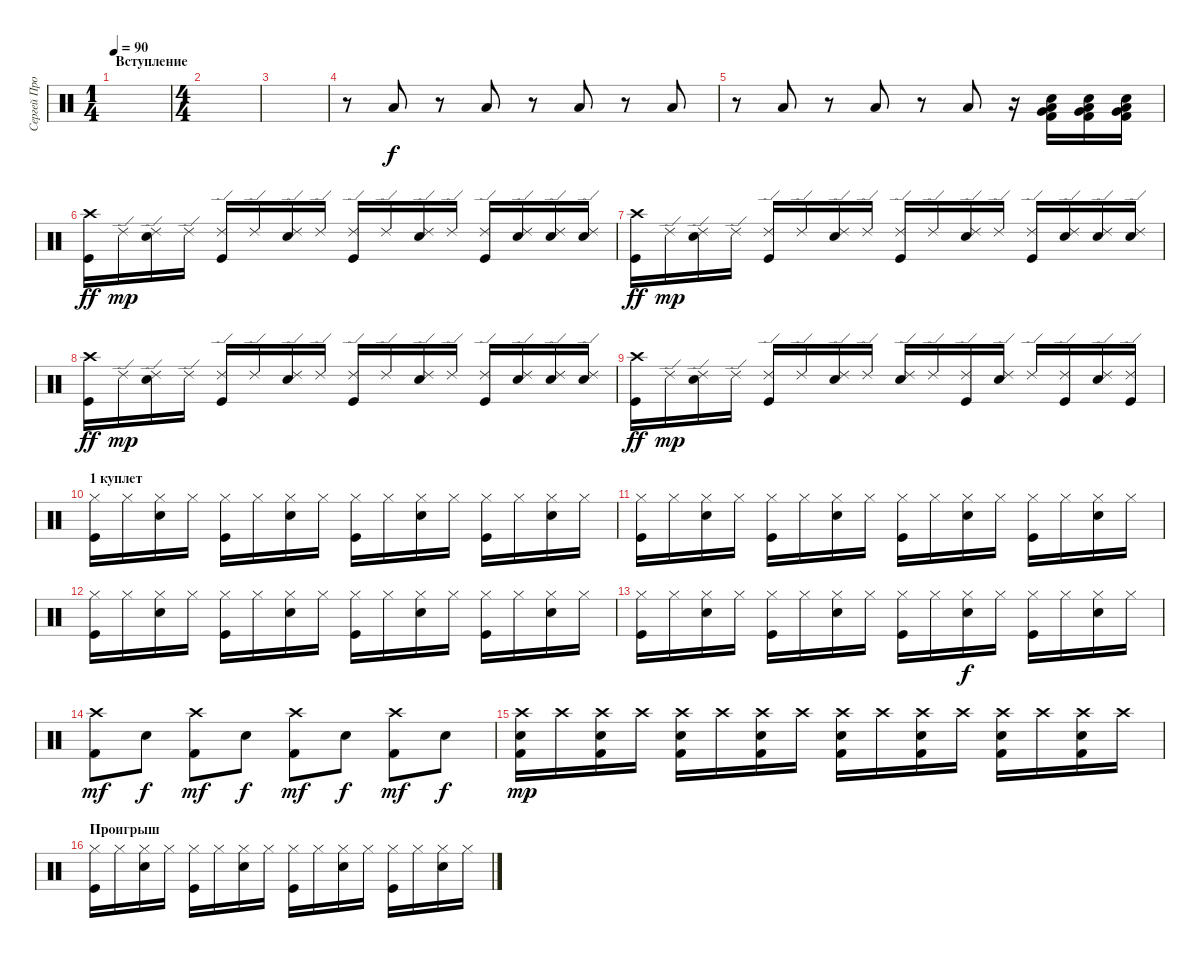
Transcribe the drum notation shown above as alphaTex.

\track ("Сергей Прокофьев" "Сергей Про") {instrument percussion}
\staff {score}
\articulation defaults
\ts (1 4)
\section ("" "Вступление")
\tempo 90
\clef neutral
\ks c
|
\ts (4 4)
|
|
r.8 "Low Tom (hit)".8 r.8 "Low Tom (hit)".8 r.8 "Low Tom (hit)".8 r.8 "Low Tom (hit)".8 |
r.8 "Low Tom (hit)".8 r.8 "Low Tom (hit)".8 r.8 "Low Tom (hit)".8 r.16 ("Kick (hit) 2" "Low Tom (hit)" "Very Low Tom (hit)" "Electric Snare (hit)").16 ("Kick (hit) 2" "Low Tom (hit)" "Very Low Tom (hit)" "Electric Snare (hit)").16 ("Kick (hit) 2" "Low Tom (hit)" "Very Low Tom (hit)" "Electric Snare (hit)").16 |
("Crash high (hit)" "Kick (hit)").16{dy ff} "Ride (edge) 2".16{dy mp} ("Ride (edge) 2" "Electric Snare (hit)").16 "Ride (edge) 2".16 ("Ride (edge) 2" "Kick (hit)").16 "Ride (edge) 2".16 ("Ride (edge) 2" "Electric Snare (hit)").16 "Ride (edge) 2".16 ("Ride (edge) 2" "Kick (hit)").16 "Ride (edge) 2".16 ("Ride (edge) 2" "Electric Snare (hit)").16 "Ride (edge) 2".16 ("Ride (edge) 2" "Kick (hit)").16 ("Ride (edge) 2" "Electric Snare (hit)").16 ("Ride (edge) 2" "Electric Snare (hit)").16 ("Ride (edge) 2" "Electric Snare (hit)").16 |
("Crash high (hit)" "Kick (hit)").16{dy ff} "Ride (edge) 2".16{dy mp} ("Ride (edge) 2" "Electric Snare (hit)").16 "Ride (edge) 2".16 ("Ride (edge) 2" "Kick (hit)").16 "Ride (edge) 2".16 ("Ride (edge) 2" "Electric Snare (hit)").16 "Ride (edge) 2".16 ("Ride (edge) 2" "Kick (hit)").16 "Ride (edge) 2".16 ("Ride (edge) 2" "Electric Snare (hit)").16 "Ride (edge) 2".16 ("Ride (edge) 2" "Kick (hit)").16 ("Ride (edge) 2" "Electric Snare (hit)").16 ("Ride (edge) 2" "Electric Snare (hit)").16 ("Ride (edge) 2" "Electric Snare (hit)").16 |
("Crash high (hit)" "Kick (hit)").16{dy ff} "Ride (edge) 2".16{dy mp} ("Ride (edge) 2" "Electric Snare (hit)").16 "Ride (edge) 2".16 ("Ride (edge) 2" "Kick (hit)").16 "Ride (edge) 2".16 ("Ride (edge) 2" "Electric Snare (hit)").16 "Ride (edge) 2".16 ("Ride (edge) 2" "Kick (hit)").16 "Ride (edge) 2".16 ("Ride (edge) 2" "Electric Snare (hit)").16 "Ride (edge) 2".16 ("Ride (edge) 2" "Kick (hit)").16 ("Ride (edge) 2" "Electric Snare (hit)").16 ("Ride (edge) 2" "Electric Snare (hit)").16 ("Ride (edge) 2" "Electric Snare (hit)").16 |
("Crash high (hit)" "Kick (hit)").16{dy ff} "Ride (edge) 2".16{dy mp} ("Ride (edge) 2" "Electric Snare (hit)").16 "Ride (edge) 2".16 ("Ride (edge) 2" "Kick (hit)").16 "Ride (edge) 2".16 ("Ride (edge) 2" "Electric Snare (hit)").16 "Ride (edge) 2".16 ("Ride (edge) 2" "Electric Snare (hit)").16 "Ride (edge) 2".16 ("Ride (edge) 2" "Kick (hit)").16 ("Ride (edge) 2" "Electric Snare (hit)").16 "Ride (edge) 2".16 ("Ride (edge) 2" "Kick (hit)").16 ("Ride (edge) 2" "Electric Snare (hit)").16 ("Ride (edge) 2" "Kick (hit)").16 |
\section ("" "1 куплет")
("Hi-Hat (closed)" "Kick (hit)").16 "Hi-Hat (closed)".16 ("Hi-Hat (closed)" "Electric Snare (hit)").16 "Hi-Hat (closed)".16 ("Hi-Hat (closed)" "Kick (hit)").16 "Hi-Hat (closed)".16 ("Hi-Hat (closed)" "Electric Snare (hit)").16 "Hi-Hat (closed)".16 ("Hi-Hat (closed)" "Kick (hit)").16 "Hi-Hat (closed)".16 ("Hi-Hat (closed)" "Electric Snare (hit)").16 "Hi-Hat (closed)".16 ("Hi-Hat (closed)" "Kick (hit)").16 "Hi-Hat (closed)".16 ("Hi-Hat (closed)" "Electric Snare (hit)").16 "Hi-Hat (closed)".16 |
("Hi-Hat (closed)" "Kick (hit)").16 "Hi-Hat (closed)".16 ("Hi-Hat (closed)" "Electric Snare (hit)").16 "Hi-Hat (closed)".16 ("Hi-Hat (closed)" "Kick (hit)").16 "Hi-Hat (closed)".16 ("Hi-Hat (closed)" "Electric Snare (hit)").16 "Hi-Hat (closed)".16 ("Hi-Hat (closed)" "Kick (hit)").16 "Hi-Hat (closed)".16 ("Hi-Hat (closed)" "Electric Snare (hit)").16 "Hi-Hat (closed)".16 ("Hi-Hat (closed)" "Kick (hit)").16 "Hi-Hat (closed)".16 ("Hi-Hat (closed)" "Electric Snare (hit)").16 "Hi-Hat (closed)".16 |
("Hi-Hat (closed)" "Kick (hit)").16 "Hi-Hat (closed)".16 ("Hi-Hat (closed)" "Electric Snare (hit)").16 "Hi-Hat (closed)".16 ("Hi-Hat (closed)" "Kick (hit)").16 "Hi-Hat (closed)".16 ("Hi-Hat (closed)" "Electric Snare (hit)").16 "Hi-Hat (closed)".16 ("Hi-Hat (closed)" "Kick (hit)").16 "Hi-Hat (closed)".16 ("Hi-Hat (closed)" "Electric Snare (hit)").16 "Hi-Hat (closed)".16 ("Hi-Hat (closed)" "Kick (hit)").16 "Hi-Hat (closed)".16 ("Hi-Hat (closed)" "Electric Snare (hit)").16 "Hi-Hat (closed)".16 |
("Hi-Hat (closed)" "Kick (hit)").16 "Hi-Hat (closed)".16 ("Hi-Hat (closed)" "Electric Snare (hit)").16 "Hi-Hat (closed)".16 ("Hi-Hat (closed)" "Kick (hit)").16 "Hi-Hat (closed)".16 ("Hi-Hat (closed)" "Electric Snare (hit)").16 "Hi-Hat (closed)".16 ("Hi-Hat (closed)" "Kick (hit)").16 "Hi-Hat (closed)".16 ("Hi-Hat (closed)" "Electric Snare (hit)").16{dy f} "Hi-Hat (closed)".16 ("Hi-Hat (closed)" "Kick (hit)").16 "Hi-Hat (closed)".16 ("Hi-Hat (closed)" "Electric Snare (hit)").16 "Hi-Hat (closed)".16 |
("Crash high (hit)" "Kick (hit) 2").8{dy mf} "Electric Snare (hit)".8{dy f} ("Crash high (hit)" "Kick (hit) 2").8{dy mf} "Electric Snare (hit)".8{dy f} ("Crash high (hit)" "Kick (hit) 2").8{dy mf} "Electric Snare (hit)".8{dy f} ("Crash high (hit)" "Kick (hit) 2").8{dy mf} "Electric Snare (hit)".8{dy f} |
("Crash high (hit)" "Electric Snare (hit)" "Kick (hit) 2").16{dy mp} "Crash high (hit)".16 ("Crash high (hit)" "Electric Snare (hit)" "Kick (hit) 2").16 "Crash high (hit)".16 ("Crash high (hit)" "Electric Snare (hit)" "Kick (hit) 2").16 "Crash high (hit)".16 ("Crash high (hit)" "Electric Snare (hit)" "Kick (hit) 2").16 "Crash high (hit)".16 ("Crash high (hit)" "Electric Snare (hit)" "Kick (hit) 2").16 "Crash high (hit)".16 ("Crash high (hit)" "Electric Snare (hit)" "Kick (hit) 2").16 "Crash high (hit)".16 ("Crash high (hit)" "Electric Snare (hit)" "Kick (hit) 2").16 "Crash high (hit)".16 ("Crash high (hit)" "Electric Snare (hit)" "Kick (hit) 2").16 "Crash high (hit)".16 |
\section ("" "Проигрыш")
("Hi-Hat (closed)" "Kick (hit)").16 "Hi-Hat (closed)".16 ("Hi-Hat (closed)" "Electric Snare (hit)").16 "Hi-Hat (closed)".16 ("Hi-Hat (closed)" "Kick (hit)").16 "Hi-Hat (closed)".16 ("Hi-Hat (closed)" "Electric Snare (hit)").16 "Hi-Hat (closed)".16 ("Hi-Hat (closed)" "Kick (hit)").16 "Hi-Hat (closed)".16 ("Hi-Hat (closed)" "Electric Snare (hit)").16 "Hi-Hat (closed)".16 ("Hi-Hat (closed)" "Kick (hit)").16 "Hi-Hat (closed)".16 ("Hi-Hat (closed)" "Electric Snare (hit)").16 "Hi-Hat (closed)".16
